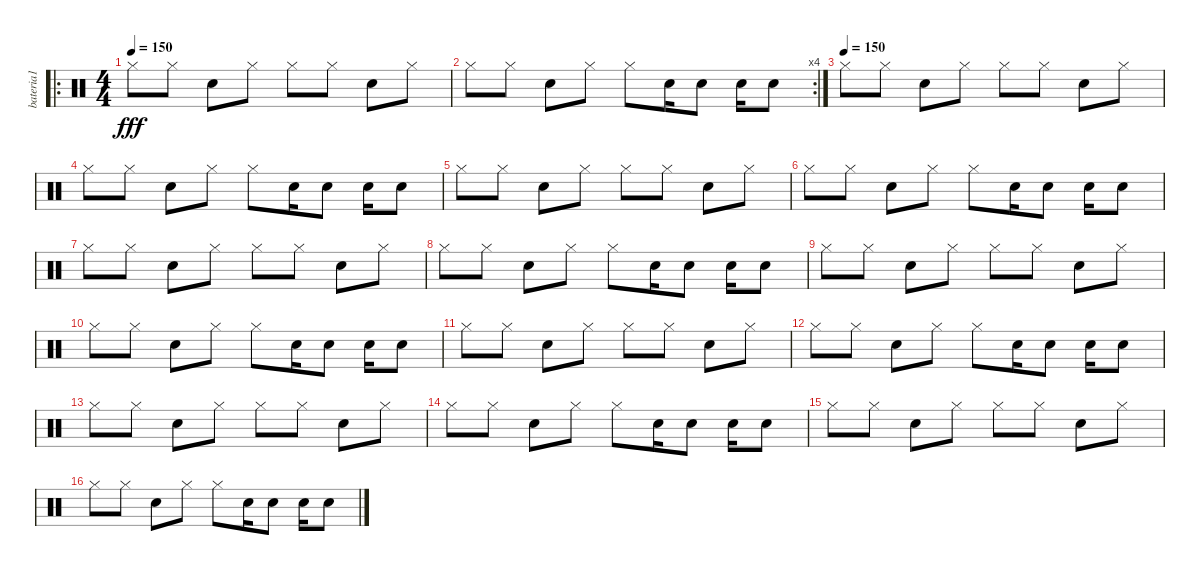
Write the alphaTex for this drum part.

\track ("bateria1" "bateria1") {instrument percussion}
\staff {score}
\articulation defaults
\ro
\ts (4 4)
\tempo 150
\clef neutral
\ks c "Hi-Hat (closed)".8{dy fff} "Hi-Hat (closed)".8 "Electric Snare (hit)".8 "Hi-Hat (closed)".8 "Hi-Hat (closed)".8 "Hi-Hat (closed)".8 "Electric Snare (hit)".8 "Hi-Hat (closed)".8
|
\rc 4 "Hi-Hat (closed)".8 "Hi-Hat (closed)".8 "Electric Snare (hit)".8 "Hi-Hat (closed)".8 "Hi-Hat (closed)".8 "Electric Snare (hit)".16 "Electric Snare (hit)".8 "Electric Snare (hit)".16 "Electric Snare (hit)".8
|
\tempo (150)
"Hi-Hat (closed)".8 "Hi-Hat (closed)".8 "Electric Snare (hit)".8 "Hi-Hat (closed)".8 "Hi-Hat (closed)".8 "Hi-Hat (closed)".8 "Electric Snare (hit)".8 "Hi-Hat (closed)".8 |
"Hi-Hat (closed)".8 "Hi-Hat (closed)".8 "Electric Snare (hit)".8 "Hi-Hat (closed)".8 "Hi-Hat (closed)".8 "Electric Snare (hit)".16 "Electric Snare (hit)".8 "Electric Snare (hit)".16 "Electric Snare (hit)".8 |
"Hi-Hat (closed)".8 "Hi-Hat (closed)".8 "Electric Snare (hit)".8 "Hi-Hat (closed)".8 "Hi-Hat (closed)".8 "Hi-Hat (closed)".8 "Electric Snare (hit)".8 "Hi-Hat (closed)".8 |
"Hi-Hat (closed)".8 "Hi-Hat (closed)".8 "Electric Snare (hit)".8 "Hi-Hat (closed)".8 "Hi-Hat (closed)".8 "Electric Snare (hit)".16 "Electric Snare (hit)".8 "Electric Snare (hit)".16 "Electric Snare (hit)".8 |
"Hi-Hat (closed)".8 "Hi-Hat (closed)".8 "Electric Snare (hit)".8 "Hi-Hat (closed)".8 "Hi-Hat (closed)".8 "Hi-Hat (closed)".8 "Electric Snare (hit)".8 "Hi-Hat (closed)".8 |
"Hi-Hat (closed)".8 "Hi-Hat (closed)".8 "Electric Snare (hit)".8 "Hi-Hat (closed)".8 "Hi-Hat (closed)".8 "Electric Snare (hit)".16 "Electric Snare (hit)".8 "Electric Snare (hit)".16 "Electric Snare (hit)".8 |
"Hi-Hat (closed)".8 "Hi-Hat (closed)".8 "Electric Snare (hit)".8 "Hi-Hat (closed)".8 "Hi-Hat (closed)".8 "Hi-Hat (closed)".8 "Electric Snare (hit)".8 "Hi-Hat (closed)".8 |
"Hi-Hat (closed)".8 "Hi-Hat (closed)".8 "Electric Snare (hit)".8 "Hi-Hat (closed)".8 "Hi-Hat (closed)".8 "Electric Snare (hit)".16 "Electric Snare (hit)".8 "Electric Snare (hit)".16 "Electric Snare (hit)".8 |
"Hi-Hat (closed)".8 "Hi-Hat (closed)".8 "Electric Snare (hit)".8 "Hi-Hat (closed)".8 "Hi-Hat (closed)".8 "Hi-Hat (closed)".8 "Electric Snare (hit)".8 "Hi-Hat (closed)".8 |
"Hi-Hat (closed)".8 "Hi-Hat (closed)".8 "Electric Snare (hit)".8 "Hi-Hat (closed)".8 "Hi-Hat (closed)".8 "Electric Snare (hit)".16 "Electric Snare (hit)".8 "Electric Snare (hit)".16 "Electric Snare (hit)".8 |
"Hi-Hat (closed)".8 "Hi-Hat (closed)".8 "Electric Snare (hit)".8 "Hi-Hat (closed)".8 "Hi-Hat (closed)".8 "Hi-Hat (closed)".8 "Electric Snare (hit)".8 "Hi-Hat (closed)".8 |
"Hi-Hat (closed)".8 "Hi-Hat (closed)".8 "Electric Snare (hit)".8 "Hi-Hat (closed)".8 "Hi-Hat (closed)".8 "Electric Snare (hit)".16 "Electric Snare (hit)".8 "Electric Snare (hit)".16 "Electric Snare (hit)".8 |
"Hi-Hat (closed)".8 "Hi-Hat (closed)".8 "Electric Snare (hit)".8 "Hi-Hat (closed)".8 "Hi-Hat (closed)".8 "Hi-Hat (closed)".8 "Electric Snare (hit)".8 "Hi-Hat (closed)".8 |
"Hi-Hat (closed)".8 "Hi-Hat (closed)".8 "Electric Snare (hit)".8 "Hi-Hat (closed)".8 "Hi-Hat (closed)".8 "Electric Snare (hit)".16 "Electric Snare (hit)".8 "Electric Snare (hit)".16 "Electric Snare (hit)".8
